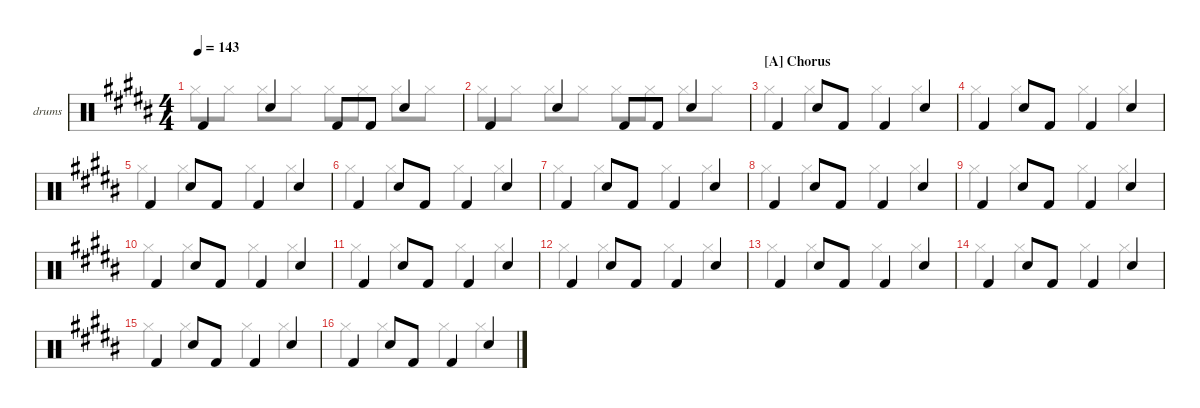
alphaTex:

\defaultSystemsLayout 4
\hideDynamics
\bracketExtendMode nobrackets
\firstSystemTrackNameOrientation horizontal
\otherSystemsTrackNameOrientation horizontal
\track ("Drumkit" "drums") {instrument percussion}
\staff {score}
\articulation defaults
\voice
\ts (4 4)
\tempo 143
\clef neutral
\ks g#minor "Kick (hit) 2"{acc forcenatural}.4{dy mf beam Up} "Snare (hit) 2"{acc forcenatural}.4{beam Up} "Kick (hit) 2"{acc forcenatural}.8{beam Up} "Kick (hit) 2"{acc forcenatural}.8{beam Up} "Snare (hit) 2"{acc forcenatural}.4{beam Up}
|
"Kick (hit) 2"{acc forcenatural}.4{beam Up} "Snare (hit) 2"{acc forcenatural}.4{beam Up} "Kick (hit) 2"{acc forcenatural}.8{beam Up} "Kick (hit) 2"{acc forcenatural}.8{beam Up} "Snare (hit) 2"{acc forcenatural}.4{beam Up} |
\section ("A" "Chorus")
"Kick (hit) 2"{acc forcenatural}.4{beam Up} "Snare (hit) 2"{acc forcenatural}.8{beam Up} "Kick (hit) 2"{acc forcenatural}.8{beam Up} "Kick (hit) 2"{acc forcenatural}.4{beam Up} "Snare (hit) 2"{acc forcenatural}.4{beam Up} |
"Kick (hit) 2"{acc forcenatural}.4{beam Up} "Snare (hit) 2"{acc forcenatural}.8{beam Up} "Kick (hit) 2"{acc forcenatural}.8{beam Up} "Kick (hit) 2"{acc forcenatural}.4{beam Up} "Snare (hit) 2"{acc forcenatural}.4{beam Up} |
"Kick (hit) 2"{acc forcenatural}.4{beam Up} "Snare (hit) 2"{acc forcenatural}.8{beam Up} "Kick (hit) 2"{acc forcenatural}.8{beam Up} "Kick (hit) 2"{acc forcenatural}.4{beam Up} "Snare (hit) 2"{acc forcenatural}.4{beam Up} |
"Kick (hit) 2"{acc forcenatural}.4{beam Up} "Snare (hit) 2"{acc forcenatural}.8{beam Up} "Kick (hit) 2"{acc forcenatural}.8{beam Up} "Kick (hit) 2"{acc forcenatural}.4{beam Up} "Snare (hit) 2"{acc forcenatural}.4{beam Up} |
"Kick (hit) 2"{acc forcenatural}.4{beam Up} "Snare (hit) 2"{acc forcenatural}.8{beam Up} "Kick (hit) 2"{acc forcenatural}.8{beam Up} "Kick (hit) 2"{acc forcenatural}.4{beam Up} "Snare (hit) 2"{acc forcenatural}.4{beam Up} |
"Kick (hit) 2"{acc forcenatural}.4{beam Up} "Snare (hit) 2"{acc forcenatural}.8{beam Up} "Kick (hit) 2"{acc forcenatural}.8{beam Up} "Kick (hit) 2"{acc forcenatural}.4{beam Up} "Snare (hit) 2"{acc forcenatural}.4{beam Up} |
"Kick (hit) 2"{acc forcenatural}.4{beam Up} "Snare (hit) 2"{acc forcenatural}.8{beam Up} "Kick (hit) 2"{acc forcenatural}.8{beam Up} "Kick (hit) 2"{acc forcenatural}.4{beam Up} "Snare (hit) 2"{acc forcenatural}.4{beam Up} |
"Kick (hit) 2"{acc forcenatural}.4{beam Up} "Snare (hit) 2"{acc forcenatural}.8{beam Up} "Kick (hit) 2"{acc forcenatural}.8{beam Up} "Kick (hit) 2"{acc forcenatural}.4{beam Up} "Snare (hit) 2"{acc forcenatural}.4{beam Up} |
"Kick (hit) 2"{acc forcenatural}.4{beam Up} "Snare (hit) 2"{acc forcenatural}.8{beam Up} "Kick (hit) 2"{acc forcenatural}.8{beam Up} "Kick (hit) 2"{acc forcenatural}.4{beam Up} "Snare (hit) 2"{acc forcenatural}.4{beam Up} |
"Kick (hit) 2"{acc forcenatural}.4{beam Up} "Snare (hit) 2"{acc forcenatural}.8{beam Up} "Kick (hit) 2"{acc forcenatural}.8{beam Up} "Kick (hit) 2"{acc forcenatural}.4{beam Up} "Snare (hit) 2"{acc forcenatural}.4{beam Up} |
"Kick (hit) 2"{acc forcenatural}.4{beam Up} "Snare (hit) 2"{acc forcenatural}.8{beam Up} "Kick (hit) 2"{acc forcenatural}.8{beam Up} "Kick (hit) 2"{acc forcenatural}.4{beam Up} "Snare (hit) 2"{acc forcenatural}.4{beam Up} |
"Kick (hit) 2"{acc forcenatural}.4{beam Up} "Snare (hit) 2"{acc forcenatural}.8{beam Up} "Kick (hit) 2"{acc forcenatural}.8{beam Up} "Kick (hit) 2"{acc forcenatural}.4{beam Up} "Snare (hit) 2"{acc forcenatural}.4{beam Up} |
"Kick (hit) 2"{acc forcenatural}.4{beam Up} "Snare (hit) 2"{acc forcenatural}.8{beam Up} "Kick (hit) 2"{acc forcenatural}.8{beam Up} "Kick (hit) 2"{acc forcenatural}.4{beam Up} "Snare (hit) 2"{acc forcenatural}.4{beam Up} |
"Kick (hit) 2"{acc forcenatural}.4{beam Up} "Snare (hit) 2"{acc forcenatural}.8{beam Up} "Kick (hit) 2"{acc forcenatural}.8{beam Up} "Kick (hit) 2"{acc forcenatural}.4{beam Up} "Snare (hit) 2"{acc forcenatural}.4{beam Up}
\voice
\clef neutral
\ottava regular
\simile none
\ks g#minor "Hi-Hat (closed)"{acc forcenatural}.8{dy mf beam Down} "Hi-Hat (closed)"{acc forcenatural}.8{beam Down} "Hi-Hat (closed)"{acc forcenatural}.8{beam Down} "Hi-Hat (closed)"{acc forcenatural}.8{beam Down} "Hi-Hat (closed)"{acc forcenatural}.8{beam Down} "Hi-Hat (closed)"{acc forcenatural}.8{beam Down} "Hi-Hat (closed)"{acc forcenatural}.8{beam Down} "Hi-Hat (closed)"{acc forcenatural}.8{beam Down}
|
"Hi-Hat (closed)"{acc forcenatural}.8{beam Down} "Hi-Hat (closed)"{acc forcenatural}.8{beam Down} "Hi-Hat (closed)"{acc forcenatural}.8{beam Down} "Hi-Hat (closed)"{acc forcenatural}.8{beam Down} "Hi-Hat (closed)"{acc forcenatural}.8{beam Down} "Hi-Hat (closed)"{acc forcenatural}.8{beam Down} "Hi-Hat (closed)"{acc forcenatural}.8{beam Down} "Hi-Hat (closed)"{acc forcenatural}.8{beam Down} |
"Hi-Hat (closed)"{acc forcenatural}.4{beam Down} "Hi-Hat (closed)"{acc forcenatural}.4{beam Down} "Hi-Hat (closed)"{acc forcenatural}.4{beam Down} "Hi-Hat (closed)"{acc forcenatural}.4{beam Down} |
"Hi-Hat (closed)"{acc forcenatural}.4{beam Down} "Hi-Hat (closed)"{acc forcenatural}.4{beam Down} "Hi-Hat (closed)"{acc forcenatural}.4{beam Down} "Hi-Hat (closed)"{acc forcenatural}.4{beam Down} |
"Hi-Hat (closed)"{acc forcenatural}.4{beam Down} "Hi-Hat (closed)"{acc forcenatural}.4{beam Down} "Hi-Hat (closed)"{acc forcenatural}.4{beam Down} "Hi-Hat (closed)"{acc forcenatural}.4{beam Down} |
"Hi-Hat (closed)"{acc forcenatural}.4{beam Down} "Hi-Hat (closed)"{acc forcenatural}.4{beam Down} "Hi-Hat (closed)"{acc forcenatural}.4{beam Down} "Hi-Hat (closed)"{acc forcenatural}.4{beam Down} |
"Hi-Hat (closed)"{acc forcenatural}.4{beam Down} "Hi-Hat (closed)"{acc forcenatural}.4{beam Down} "Hi-Hat (closed)"{acc forcenatural}.4{beam Down} "Hi-Hat (closed)"{acc forcenatural}.4{beam Down} |
"Hi-Hat (closed)"{acc forcenatural}.4{beam Down} "Hi-Hat (closed)"{acc forcenatural}.4{beam Down} "Hi-Hat (closed)"{acc forcenatural}.4{beam Down} "Hi-Hat (closed)"{acc forcenatural}.4{beam Down} |
"Hi-Hat (closed)"{acc forcenatural}.4{beam Down} "Hi-Hat (closed)"{acc forcenatural}.4{beam Down} "Hi-Hat (closed)"{acc forcenatural}.4{beam Down} "Hi-Hat (closed)"{acc forcenatural}.4{beam Down} |
"Hi-Hat (closed)"{acc forcenatural}.4{beam Down} "Hi-Hat (closed)"{acc forcenatural}.4{beam Down} "Hi-Hat (closed)"{acc forcenatural}.4{beam Down} "Hi-Hat (closed)"{acc forcenatural}.4{beam Down} |
"Hi-Hat (closed)"{acc forcenatural}.4{beam Down} "Hi-Hat (closed)"{acc forcenatural}.4{beam Down} "Hi-Hat (closed)"{acc forcenatural}.4{beam Down} "Hi-Hat (closed)"{acc forcenatural}.4{beam Down} |
"Hi-Hat (closed)"{acc forcenatural}.4{beam Down} "Hi-Hat (closed)"{acc forcenatural}.4{beam Down} "Hi-Hat (closed)"{acc forcenatural}.4{beam Down} "Hi-Hat (closed)"{acc forcenatural}.4{beam Down} |
"Hi-Hat (closed)"{acc forcenatural}.4{beam Down} "Hi-Hat (closed)"{acc forcenatural}.4{beam Down} "Hi-Hat (closed)"{acc forcenatural}.4{beam Down} "Hi-Hat (closed)"{acc forcenatural}.4{beam Down} |
"Hi-Hat (closed)"{acc forcenatural}.4{beam Down} "Hi-Hat (closed)"{acc forcenatural}.4{beam Down} "Hi-Hat (closed)"{acc forcenatural}.4{beam Down} "Hi-Hat (closed)"{acc forcenatural}.4{beam Down} |
"Hi-Hat (closed)"{acc forcenatural}.4{beam Down} "Hi-Hat (closed)"{acc forcenatural}.4{beam Down} "Hi-Hat (closed)"{acc forcenatural}.4{beam Down} "Hi-Hat (closed)"{acc forcenatural}.4{beam Down} |
"Hi-Hat (closed)"{acc forcenatural}.4{beam Down} "Hi-Hat (closed)"{acc forcenatural}.4{beam Down} "Hi-Hat (closed)"{acc forcenatural}.4{beam Down} "Hi-Hat (closed)"{acc forcenatural}.4{beam Down}
